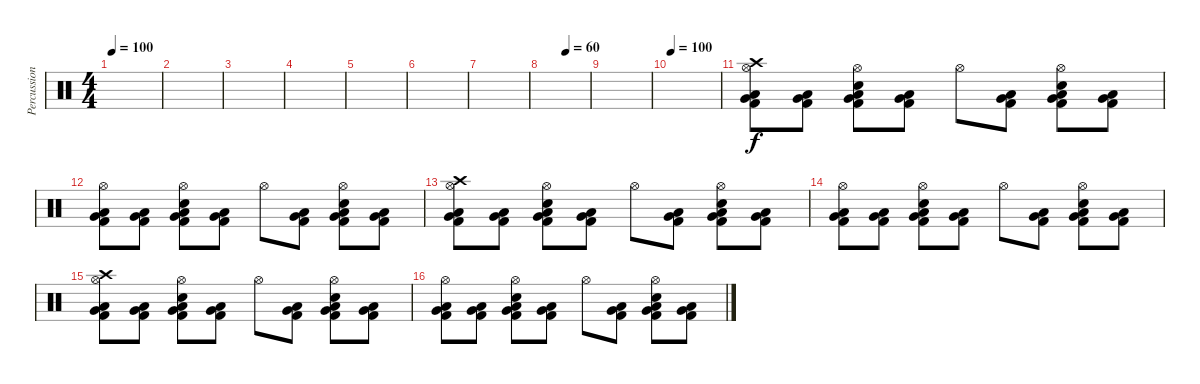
\track ("Percussion" "Percussion") {instrument percussion}
\staff {score}
\articulation defaults
\ts (4 4)
\tempo 100
\clef neutral
\ks c
|
|
|
|
|
|
|
\tempo (60 0.5)
|
|
\tempo 100
|
("Crash high (hit)" "Hi-Hat (open)" "Low Tom (hit)" "Very Low Tom (hit)" "Kick (hit) 2").8{dy f} ("Low Tom (hit)" "Very Low Tom (hit)" "Kick (hit) 2").8 ("Hi-Hat (open)" "Very Low Tom (hit)" "Low Floor Tom (hit)" "Electric Snare (hit)" "Kick (hit) 2").8 ("Low Tom (hit)" "Very Low Tom (hit)" "Kick (hit) 2").8 "Hi-Hat (open)".8 ("Low Tom (hit)" "Very Low Tom (hit)" "Kick (hit) 2").8 ("Hi-Hat (open)" "Very Low Tom (hit)" "Low Floor Tom (hit)" "Electric Snare (hit)" "Kick (hit) 2").8 ("Low Tom (hit)" "Very Low Tom (hit)" "Kick (hit) 2").8 |
("Hi-Hat (open)" "Low Tom (hit)" "Very Low Tom (hit)" "Kick (hit) 2").8 ("Low Tom (hit)" "Very Low Tom (hit)" "Kick (hit) 2").8 ("Hi-Hat (open)" "Very Low Tom (hit)" "Low Floor Tom (hit)" "Electric Snare (hit)" "Kick (hit) 2").8 ("Low Tom (hit)" "Very Low Tom (hit)" "Kick (hit) 2").8 "Hi-Hat (open)".8 ("Low Tom (hit)" "Very Low Tom (hit)" "Kick (hit) 2").8 ("Hi-Hat (open)" "Very Low Tom (hit)" "Low Floor Tom (hit)" "Electric Snare (hit)" "Kick (hit) 2").8 ("Low Tom (hit)" "Very Low Tom (hit)" "Kick (hit) 2").8 |
("Crash high (hit)" "Hi-Hat (open)" "Low Tom (hit)" "Very Low Tom (hit)" "Kick (hit) 2").8 ("Low Tom (hit)" "Very Low Tom (hit)" "Kick (hit) 2").8 ("Hi-Hat (open)" "Very Low Tom (hit)" "Low Floor Tom (hit)" "Electric Snare (hit)" "Kick (hit) 2").8 ("Low Tom (hit)" "Very Low Tom (hit)" "Kick (hit) 2").8 "Hi-Hat (open)".8 ("Low Tom (hit)" "Very Low Tom (hit)" "Kick (hit) 2").8 ("Hi-Hat (open)" "Very Low Tom (hit)" "Low Floor Tom (hit)" "Electric Snare (hit)" "Kick (hit) 2").8 ("Low Tom (hit)" "Very Low Tom (hit)" "Kick (hit) 2").8 |
("Hi-Hat (open)" "Low Tom (hit)" "Very Low Tom (hit)" "Kick (hit) 2").8 ("Low Tom (hit)" "Very Low Tom (hit)" "Kick (hit) 2").8 ("Hi-Hat (open)" "Very Low Tom (hit)" "Low Floor Tom (hit)" "Electric Snare (hit)" "Kick (hit) 2").8 ("Low Tom (hit)" "Very Low Tom (hit)" "Kick (hit) 2").8 "Hi-Hat (open)".8 ("Low Tom (hit)" "Very Low Tom (hit)" "Kick (hit) 2").8 ("Hi-Hat (open)" "Very Low Tom (hit)" "Low Floor Tom (hit)" "Electric Snare (hit)" "Kick (hit) 2").8 ("Low Tom (hit)" "Very Low Tom (hit)" "Kick (hit) 2").8 |
("Crash high (hit)" "Hi-Hat (open)" "Low Tom (hit)" "Very Low Tom (hit)" "Kick (hit) 2").8 ("Low Tom (hit)" "Very Low Tom (hit)" "Kick (hit) 2").8 ("Hi-Hat (open)" "Very Low Tom (hit)" "Low Floor Tom (hit)" "Electric Snare (hit)" "Kick (hit) 2").8 ("Low Tom (hit)" "Very Low Tom (hit)" "Kick (hit) 2").8 "Hi-Hat (open)".8 ("Low Tom (hit)" "Very Low Tom (hit)" "Kick (hit) 2").8 ("Hi-Hat (open)" "Very Low Tom (hit)" "Low Floor Tom (hit)" "Electric Snare (hit)" "Kick (hit) 2").8 ("Low Tom (hit)" "Very Low Tom (hit)" "Kick (hit) 2").8 |
("Hi-Hat (open)" "Low Tom (hit)" "Very Low Tom (hit)" "Kick (hit) 2").8 ("Low Tom (hit)" "Very Low Tom (hit)" "Kick (hit) 2").8 ("Hi-Hat (open)" "Very Low Tom (hit)" "Low Floor Tom (hit)" "Electric Snare (hit)" "Kick (hit) 2").8 ("Low Tom (hit)" "Very Low Tom (hit)" "Kick (hit) 2").8 "Hi-Hat (open)".8 ("Low Tom (hit)" "Very Low Tom (hit)" "Kick (hit) 2").8 ("Hi-Hat (open)" "Very Low Tom (hit)" "Low Floor Tom (hit)" "Electric Snare (hit)" "Kick (hit) 2").8 ("Low Tom (hit)" "Very Low Tom (hit)" "Kick (hit) 2").8
